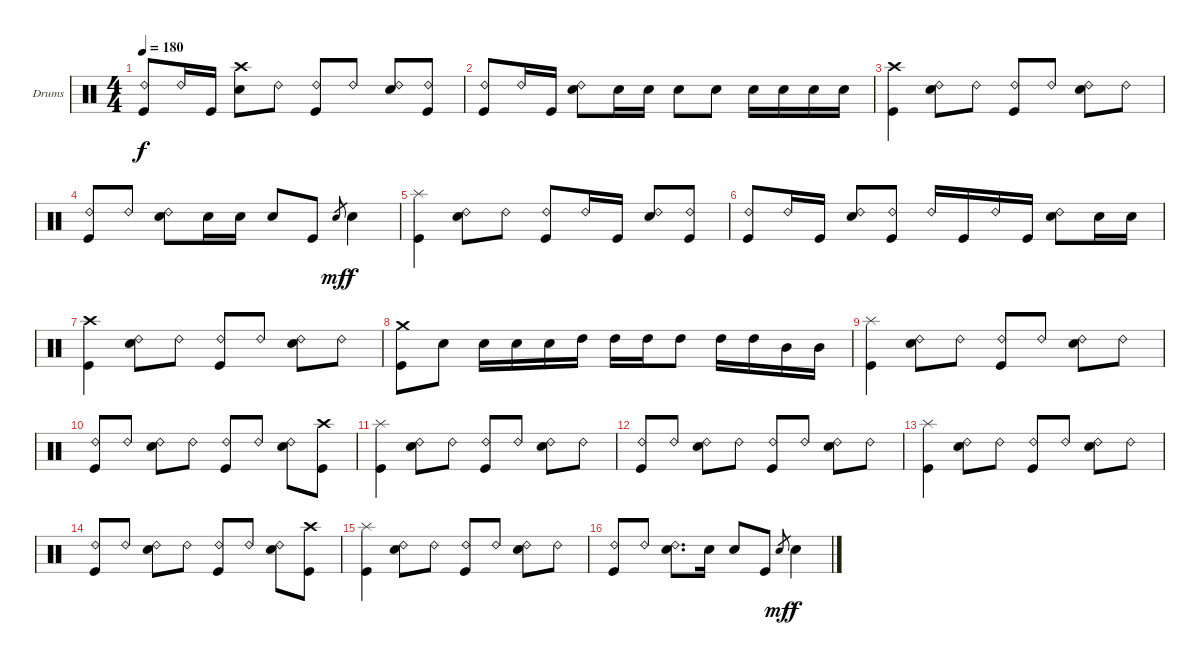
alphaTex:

\bracketExtendMode groupsimilarinstruments
\firstSystemTrackNameOrientation horizontal
\otherSystemsTrackNameOrientation horizontal
\track ("Dave Lombardo" "Drums") {instrument percussion}
\staff {score}
\articulation defaults
\ts (4 4)
\tempo 180
\clef neutral
\ks c
("Kick (hit)" "Ride (bell) 2").8{dy f} "Ride (bell) 2".16 "Kick (hit)".16 ("Snare (hit) 2" "Crash high (hit)").8 "Ride (bell) 2".8 ("Kick (hit)" "Ride (bell) 2").8 "Ride (bell) 2".8 ("Snare (hit) 2" "Ride (bell) 2").8 ("Kick (hit)" "Ride (bell) 2").8 |
("Kick (hit)" "Ride (bell) 2").8 "Ride (bell) 2".16 "Kick (hit)".16 ("Snare (hit) 2" "Ride (bell) 2").8 "Snare (hit) 2".16 "Snare (hit) 2".16 "Snare (hit) 2".8 "Snare (hit) 2".8 "Snare (hit) 2".16 "Snare (hit) 2".16 "Snare (hit) 2".16 "Snare (hit) 2".16 |
("Kick (hit)" "Crash high (hit)").4 ("Snare (hit) 2" "Ride (bell) 2").8 "Ride (bell) 2".8 ("Kick (hit)" "Ride (bell) 2").8 "Ride (bell) 2".8 ("Snare (hit) 2" "Ride (bell) 2").8 "Ride (bell) 2".8 |
("Kick (hit)" "Ride (bell) 2").8 "Ride (bell) 2".8 ("Snare (hit) 2" "Ride (bell) 2").8 "Snare (hit) 2".16 "Snare (hit) 2".16 "Snare (hit) 2".8 "Kick (hit)".8 "Snare (hit) 2".8{gr dy mf} "Snare (hit) 2".4{dy f} |
("Kick (hit)" "Splash (hit)").4 ("Snare (hit) 2" "Ride (bell) 2").8 "Ride (bell) 2".8 ("Kick (hit)" "Ride (bell) 2").8 "Ride (bell) 2".16 "Kick (hit)".16 ("Snare (hit) 2" "Ride (bell) 2").8 ("Kick (hit)" "Ride (bell) 2").8 |
("Kick (hit)" "Ride (bell) 2").8 "Ride (bell) 2".16 "Kick (hit)".16 ("Snare (hit) 2" "Ride (bell) 2").8 ("Kick (hit)" "Ride (bell) 2").8 "Ride (bell) 2".16 "Kick (hit)".16 "Ride (bell) 2".16 "Kick (hit)".16 ("Snare (hit) 2" "Ride (bell) 2").8 "Snare (hit) 2".16 "Snare (hit) 2".16 |
("Kick (hit)" "Crash high (hit)").4 ("Snare (hit) 2" "Ride (bell) 2").8 "Ride (bell) 2".8 ("Kick (hit)" "Ride (bell) 2").8 "Ride (bell) 2".8 ("Snare (hit) 2" "Ride (bell) 2").8 "Ride (bell) 2".8 |
("Kick (hit)" "Crash medium (hit)").8 "Snare (hit) 2".8 "Snare (hit) 2".16 "Snare (hit) 2".16 "Snare (hit) 2".16 "High Tom (hit)".16 "High Tom (hit)".16 "High Tom (hit)".16 "High Tom (hit)".8 "High Tom (hit)".16 "High Tom (hit)".16 "Mid Tom (hit)".16 "Mid Tom (hit)".16 |
("Kick (hit)" "Splash (hit)").4 ("Snare (hit) 2" "Ride (bell) 2").8 "Ride (bell) 2".8 ("Kick (hit)" "Ride (bell) 2").8 "Ride (bell) 2".8 ("Snare (hit) 2" "Ride (bell) 2").8 "Ride (bell) 2".8 |
("Kick (hit)" "Ride (bell) 2").8 "Ride (bell) 2".8 ("Snare (hit) 2" "Ride (bell) 2").8 "Ride (bell) 2".8 ("Kick (hit)" "Ride (bell) 2").8 "Ride (bell) 2".8 ("Snare (hit) 2" "Ride (bell) 2").8 ("Kick (hit)" "Crash high (hit)").8 |
("Kick (hit)" "Splash (hit)").4 ("Snare (hit) 2" "Ride (bell) 2").8 "Ride (bell) 2".8 ("Kick (hit)" "Ride (bell) 2").8 "Ride (bell) 2".8 ("Snare (hit) 2" "Ride (bell) 2").8 "Ride (bell) 2".8 |
("Kick (hit)" "Ride (bell) 2").8 "Ride (bell) 2".8 ("Snare (hit) 2" "Ride (bell) 2").8 "Ride (bell) 2".8 ("Kick (hit)" "Ride (bell) 2").8 "Ride (bell) 2".8 ("Snare (hit) 2" "Ride (bell) 2").8 "Ride (bell) 2".8 |
("Kick (hit)" "Splash (hit)").4 ("Snare (hit) 2" "Ride (bell) 2").8 "Ride (bell) 2".8 ("Kick (hit)" "Ride (bell) 2").8 "Ride (bell) 2".8 ("Snare (hit) 2" "Ride (bell) 2").8 "Ride (bell) 2".8 |
("Kick (hit)" "Ride (bell) 2").8 "Ride (bell) 2".8 ("Snare (hit) 2" "Ride (bell) 2").8 "Ride (bell) 2".8 ("Kick (hit)" "Ride (bell) 2").8 "Ride (bell) 2".8 ("Snare (hit) 2" "Ride (bell) 2").8 ("Kick (hit)" "Crash high (hit)").8 |
("Kick (hit)" "Splash (hit)").4 ("Snare (hit) 2" "Ride (bell) 2").8 "Ride (bell) 2".8 ("Kick (hit)" "Ride (bell) 2").8 "Ride (bell) 2".8 ("Snare (hit) 2" "Ride (bell) 2").8 "Ride (bell) 2".8 |
("Kick (hit)" "Ride (bell) 2").8 "Ride (bell) 2".8 ("Snare (hit) 2" "Ride (bell) 2").8{d} "Snare (hit) 2".16 "Snare (hit) 2".8 "Kick (hit)".8 "Snare (hit) 2".8{gr dy mf} "Snare (hit) 2".4{dy f}
